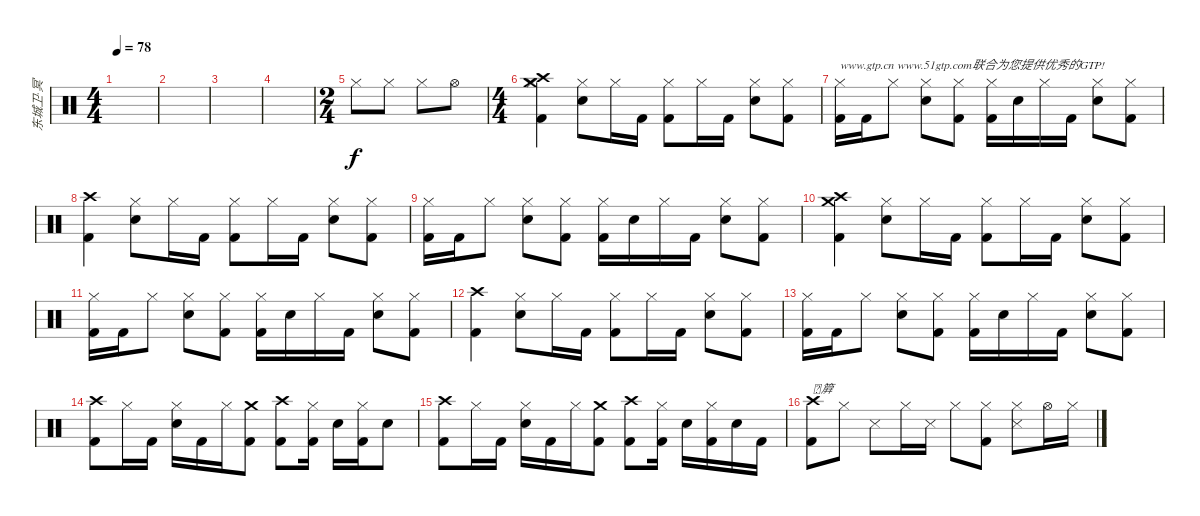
\track ("东城卫·冥" "东城卫·冥") {instrument percussion}
\staff {score}
\articulation defaults
\ts (4 4)
\tempo 78
\clef neutral
\ks c
|
|
|
|
\ts (2 4)
"Hi-Hat (closed)".8 "Hi-Hat (closed)".8 "Hi-Hat (closed)".8 "Hi-Hat (open)".8 |
\ts (4 4)
("Crash medium (hit)" "Crash high (hit)" "Hi-Hat (closed)" "Kick (hit) 2").4 ("Hi-Hat (closed)" "Electric Snare (hit)").8 "Hi-Hat (closed)".16 "Kick (hit) 2".16 ("Hi-Hat (closed)" "Kick (hit) 2").8 "Hi-Hat (closed)".16 "Kick (hit) 2".16 ("Hi-Hat (closed)" "Electric Snare (hit)").8 ("Hi-Hat (closed)" "Kick (hit) 2").8 |
("Hi-Hat (closed)" "Kick (hit) 2").16{txt "www.gtp.cn www.51gtp.com联合为您提供优秀的GTP!"} "Kick (hit) 2".16 "Hi-Hat (closed)".8 ("Hi-Hat (closed)" "Electric Snare (hit)").8 ("Hi-Hat (closed)" "Kick (hit) 2").8 ("Hi-Hat (closed)" "Kick (hit) 2").16 "Electric Snare (hit)".16 "Hi-Hat (closed)".16 "Kick (hit) 2".16 ("Hi-Hat (closed)" "Electric Snare (hit)").8 ("Hi-Hat (closed)" "Kick (hit) 2").8 |
("Crash high (hit)" "Kick (hit) 2").4 ("Hi-Hat (closed)" "Electric Snare (hit)").8 "Hi-Hat (closed)".16 "Kick (hit) 2".16 ("Hi-Hat (closed)" "Kick (hit) 2").8 "Hi-Hat (closed)".16 "Kick (hit) 2".16 ("Hi-Hat (closed)" "Electric Snare (hit)").8 ("Hi-Hat (closed)" "Kick (hit) 2").8 |
("Hi-Hat (closed)" "Kick (hit) 2").16 "Kick (hit) 2".16 "Hi-Hat (closed)".8 ("Hi-Hat (closed)" "Electric Snare (hit)").8 ("Hi-Hat (closed)" "Kick (hit) 2").8 ("Hi-Hat (closed)" "Kick (hit) 2").16 "Electric Snare (hit)".16 "Hi-Hat (closed)".16 "Kick (hit) 2".16 ("Hi-Hat (closed)" "Electric Snare (hit)").8 ("Hi-Hat (closed)" "Kick (hit) 2").8 |
("Crash medium (hit)" "Crash high (hit)" "Kick (hit) 2").4 ("Hi-Hat (closed)" "Electric Snare (hit)").8 "Hi-Hat (closed)".16 "Kick (hit) 2".16 ("Hi-Hat (closed)" "Kick (hit) 2").8 "Hi-Hat (closed)".16 "Kick (hit) 2".16 ("Hi-Hat (closed)" "Electric Snare (hit)").8 ("Hi-Hat (closed)" "Kick (hit) 2").8 |
("Hi-Hat (closed)" "Kick (hit) 2").16 "Kick (hit) 2".16 "Hi-Hat (closed)".8 ("Hi-Hat (closed)" "Electric Snare (hit)").8 ("Hi-Hat (closed)" "Kick (hit) 2").8 ("Hi-Hat (closed)" "Kick (hit) 2").16 "Electric Snare (hit)".16 "Hi-Hat (closed)".16 "Kick (hit) 2".16 ("Hi-Hat (closed)" "Electric Snare (hit)").8 ("Hi-Hat (closed)" "Kick (hit) 2").8 |
("Crash high (hit)" "Kick (hit) 2").4 ("Hi-Hat (closed)" "Electric Snare (hit)").8 "Hi-Hat (closed)".16 "Kick (hit) 2".16 ("Hi-Hat (closed)" "Kick (hit) 2").8 "Hi-Hat (closed)".16 "Kick (hit) 2".16 ("Hi-Hat (closed)" "Electric Snare (hit)").8 ("Hi-Hat (closed)" "Kick (hit) 2").8 |
("Hi-Hat (closed)" "Kick (hit) 2").16 "Kick (hit) 2".16 "Hi-Hat (closed)".8 ("Hi-Hat (closed)" "Electric Snare (hit)").8 ("Hi-Hat (closed)" "Kick (hit) 2").8 ("Hi-Hat (closed)" "Kick (hit) 2").16 "Electric Snare (hit)".16 "Hi-Hat (closed)".16 "Kick (hit) 2".16 ("Hi-Hat (closed)" "Electric Snare (hit)").8 ("Hi-Hat (closed)" "Kick (hit) 2").8 |
("Crash high (hit)" "Kick (hit) 2").8 "Hi-Hat (closed)".16 "Kick (hit) 2".16 ("Hi-Hat (closed)" "Electric Snare (hit)").16 "Kick (hit) 2".16 "Hi-Hat (closed)".16 ("Crash medium (hit)" "Kick (hit) 2").8 ("Crash high (hit)" "Kick (hit) 2").8 ("Hi-Hat (closed)" "Kick (hit) 2").16 "Electric Snare (hit)".16 ("Hi-Hat (closed)" "Kick (hit) 2").16 "Electric Snare (hit)".8 |
("Crash high (hit)" "Kick (hit) 2").8 "Hi-Hat (closed)".16 "Kick (hit) 2".16 ("Hi-Hat (closed)" "Electric Snare (hit)").16 "Kick (hit) 2".16 "Hi-Hat (closed)".16 ("Crash medium (hit)" "Kick (hit) 2").8 ("Crash high (hit)" "Kick (hit) 2").8 ("Hi-Hat (closed)" "Kick (hit) 2").16 "Electric Snare (hit)".16 ("Hi-Hat (closed)" "Kick (hit) 2").16 "Electric Snare (hit)".16 "Kick (hit) 2".16 |
("Crash high (hit)" "Kick (hit) 2").8{txt "簈"} "Hi-Hat (closed)".8 "Metronome (hit)".8 "Hi-Hat (closed)".16 "Metronome (hit)".16 "Hi-Hat (closed)".8 ("Hi-Hat (closed)" "Kick (hit) 2").8 ("Hi-Hat (closed)" "Metronome (hit)").8 "Hi-Hat (open)".16 "Hi-Hat (closed)".16
